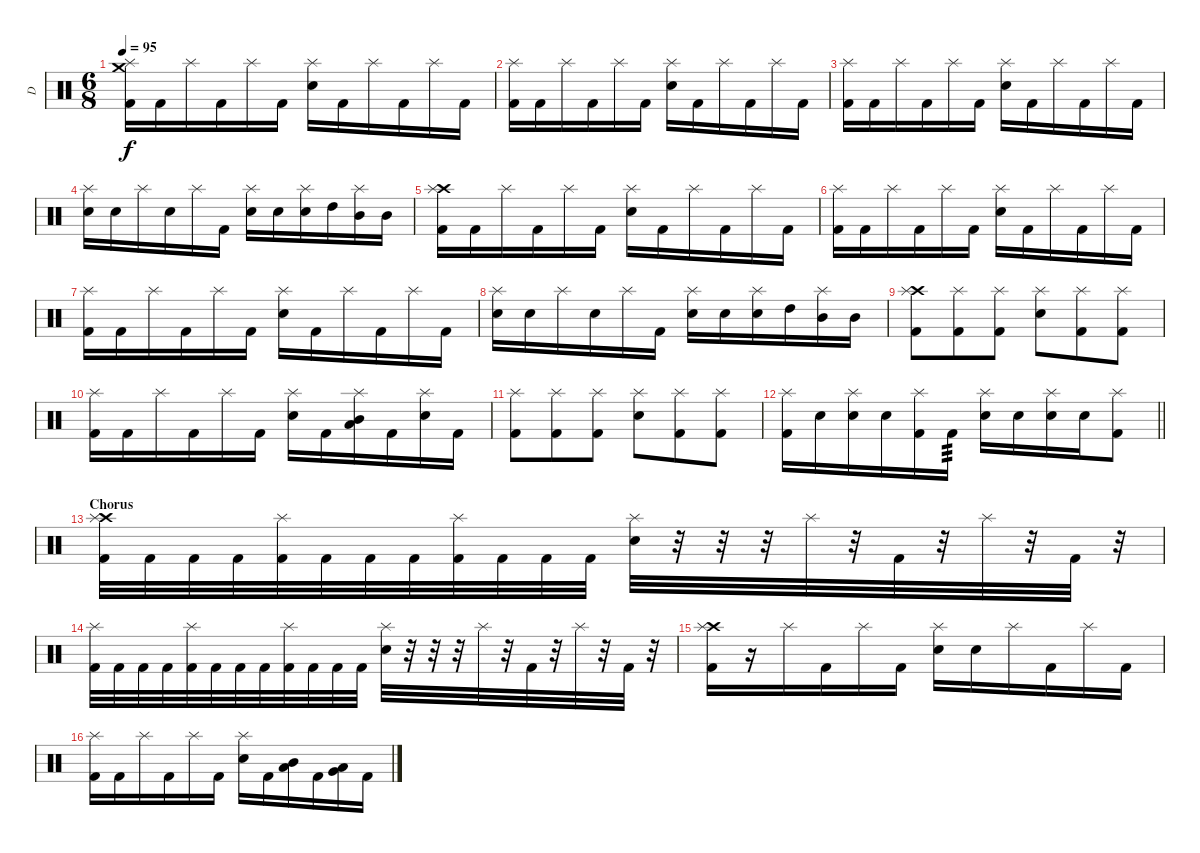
\track ("D" "D") {instrument percussion}
\staff {score}
\articulation defaults
\ts (6 8)
\tempo 95
\clef neutral
\ks c
("Crash medium (hit)" "Kick (hit) 2" "Splash (hit)").16{dy f} "Kick (hit) 2".16 "Splash (hit)".16 "Kick (hit) 2".16 "Splash (hit)".16 "Kick (hit) 2".16 ("Electric Snare (hit)" "Splash (hit)").16 "Kick (hit) 2".16 "Splash (hit)".16 "Kick (hit) 2".16 "Splash (hit)".16 "Kick (hit) 2".16 |
("Kick (hit) 2" "Splash (hit)").16 "Kick (hit) 2".16 "Splash (hit)".16 "Kick (hit) 2".16 "Splash (hit)".16 "Kick (hit) 2".16 ("Electric Snare (hit)" "Splash (hit)").16 "Kick (hit) 2".16 "Splash (hit)".16 "Kick (hit) 2".16 "Splash (hit)".16 "Kick (hit) 2".16 |
("Kick (hit) 2" "Splash (hit)").16 "Kick (hit) 2".16 "Splash (hit)".16 "Kick (hit) 2".16 "Splash (hit)".16 "Kick (hit) 2".16 ("Electric Snare (hit)" "Splash (hit)").16 "Kick (hit) 2".16 "Splash (hit)".16 "Kick (hit) 2".16 "Splash (hit)".16 "Kick (hit) 2".16 |
("Electric Snare (hit)" "Splash (hit)").16 "Electric Snare (hit)".16 "Splash (hit)".16 "Electric Snare (hit)".16 "Splash (hit)".16 "Kick (hit) 2".16 ("Electric Snare (hit)" "Splash (hit)").16 "Electric Snare (hit)".16 ("Electric Snare (hit)" "Splash (hit)").16 "High Tom (hit)".16 ("Mid Tom (hit)" "Splash (hit)").16 "Mid Tom (hit)".16 |
("Crash high (hit)" "Kick (hit) 2" "Splash (hit)").16 "Kick (hit) 2".16 "Splash (hit)".16 "Kick (hit) 2".16 "Splash (hit)".16 "Kick (hit) 2".16 ("Electric Snare (hit)" "Splash (hit)").16 "Kick (hit) 2".16 "Splash (hit)".16 "Kick (hit) 2".16 "Splash (hit)".16 "Kick (hit) 2".16 |
("Kick (hit) 2" "Splash (hit)").16 "Kick (hit) 2".16 "Splash (hit)".16 "Kick (hit) 2".16 "Splash (hit)".16 "Kick (hit) 2".16 ("Electric Snare (hit)" "Splash (hit)").16 "Kick (hit) 2".16 "Splash (hit)".16 "Kick (hit) 2".16 "Splash (hit)".16 "Kick (hit) 2".16 |
("Kick (hit) 2" "Splash (hit)").16 "Kick (hit) 2".16 "Splash (hit)".16 "Kick (hit) 2".16 "Splash (hit)".16 "Kick (hit) 2".16 ("Electric Snare (hit)" "Splash (hit)").16 "Kick (hit) 2".16 "Splash (hit)".16 "Kick (hit) 2".16 "Splash (hit)".16 "Kick (hit) 2".16 |
("Electric Snare (hit)" "Splash (hit)").16 "Electric Snare (hit)".16 "Splash (hit)".16 "Electric Snare (hit)".16 "Splash (hit)".16 "Kick (hit) 2".16 ("Electric Snare (hit)" "Splash (hit)").16 "Electric Snare (hit)".16 ("Electric Snare (hit)" "Splash (hit)").16 "High Tom (hit)".16 ("Mid Tom (hit)" "Splash (hit)").16 "Mid Tom (hit)".16 |
("Crash high (hit)" "Kick (hit) 2" "Splash (hit)").8 ("Kick (hit) 2" "Splash (hit)").8 ("Kick (hit) 2" "Splash (hit)").8 ("Electric Snare (hit)" "Splash (hit)").8 ("Kick (hit) 2" "Splash (hit)").8 ("Kick (hit) 2" "Splash (hit)").8 |
("Kick (hit) 2" "Splash (hit)").16 "Kick (hit) 2".16 "Splash (hit)".16 "Kick (hit) 2".16 "Splash (hit)".16 "Kick (hit) 2".16 ("Electric Snare (hit)" "Splash (hit)").16 "Kick (hit) 2".16 ("Mid Tom (hit)" "Low Tom (hit)" "Splash (hit)").16 "Kick (hit) 2".16 ("Electric Snare (hit)" "Splash (hit)").16 "Kick (hit) 2".16 |
("Kick (hit) 2" "Splash (hit)").8 ("Kick (hit) 2" "Splash (hit)").8 ("Kick (hit) 2" "Splash (hit)").8 ("Electric Snare (hit)" "Splash (hit)").8 ("Kick (hit) 2" "Splash (hit)").8 ("Kick (hit) 2" "Splash (hit)").8 |
\barLineRight lightlight
("Kick (hit) 2" "Splash (hit)").16 "Electric Snare (hit)".16 ("Electric Snare (hit)" "Splash (hit)").16 "Electric Snare (hit)".16 ("Kick (hit) 2" "Splash (hit)").16 "Kick (hit) 2".16{tp 3} ("Electric Snare (hit)" "Splash (hit)").16 "Electric Snare (hit)".16 ("Electric Snare (hit)" "Splash (hit)").16 "Electric Snare (hit)".16 ("Kick (hit) 2" "Splash (hit)").8 |
\section ("" "Chorus")
("Crash high (hit)" "Kick (hit) 2" "Splash (hit)").32 "Kick (hit) 2".32 "Kick (hit) 2".32 "Kick (hit) 2".32 ("Kick (hit) 2" "Splash (hit)").32 "Kick (hit) 2".32 "Kick (hit) 2".32 "Kick (hit) 2".32 ("Kick (hit) 2" "Splash (hit)").32 "Kick (hit) 2".32 "Kick (hit) 2".32 "Kick (hit) 2".32 ("Electric Snare (hit)" "Splash (hit)").32 r.32 r.32 r.32 "Splash (hit)".32 r.32 "Kick (hit) 2".32 r.32 "Splash (hit)".32 r.32 "Kick (hit) 2".32 r.32 |
("Kick (hit) 2" "Splash (hit)").32 "Kick (hit) 2".32 "Kick (hit) 2".32 "Kick (hit) 2".32 ("Kick (hit) 2" "Splash (hit)").32 "Kick (hit) 2".32 "Kick (hit) 2".32 "Kick (hit) 2".32 ("Kick (hit) 2" "Splash (hit)").32 "Kick (hit) 2".32 "Kick (hit) 2".32 "Kick (hit) 2".32 ("Electric Snare (hit)" "Splash (hit)").32 r.32 r.32 r.32 "Splash (hit)".32 r.32 "Kick (hit) 2".32 r.32 "Splash (hit)".32 r.32 "Kick (hit) 2".32 r.32 |
("Crash high (hit)" "Kick (hit) 2" "Splash (hit)").16 r.16 "Splash (hit)".16 "Kick (hit) 2".16 "Splash (hit)".16 "Kick (hit) 2".16 ("Electric Snare (hit)" "Splash (hit)").16 "Electric Snare (hit)".16 "Splash (hit)".16 "Kick (hit) 2".16 "Splash (hit)".16 "Kick (hit) 2".16 |
("Kick (hit) 2" "Splash (hit)").16 "Kick (hit) 2".16 "Splash (hit)".16 "Kick (hit) 2".16 "Splash (hit)".16 "Kick (hit) 2".16 ("Electric Snare (hit)" "Splash (hit)").16 "Kick (hit) 2".16 ("Mid Tom (hit)" "Low Tom (hit)").16 "Kick (hit) 2".16 ("Very Low Tom (hit)" "Low Tom (hit)").16 "Kick (hit) 2".16
